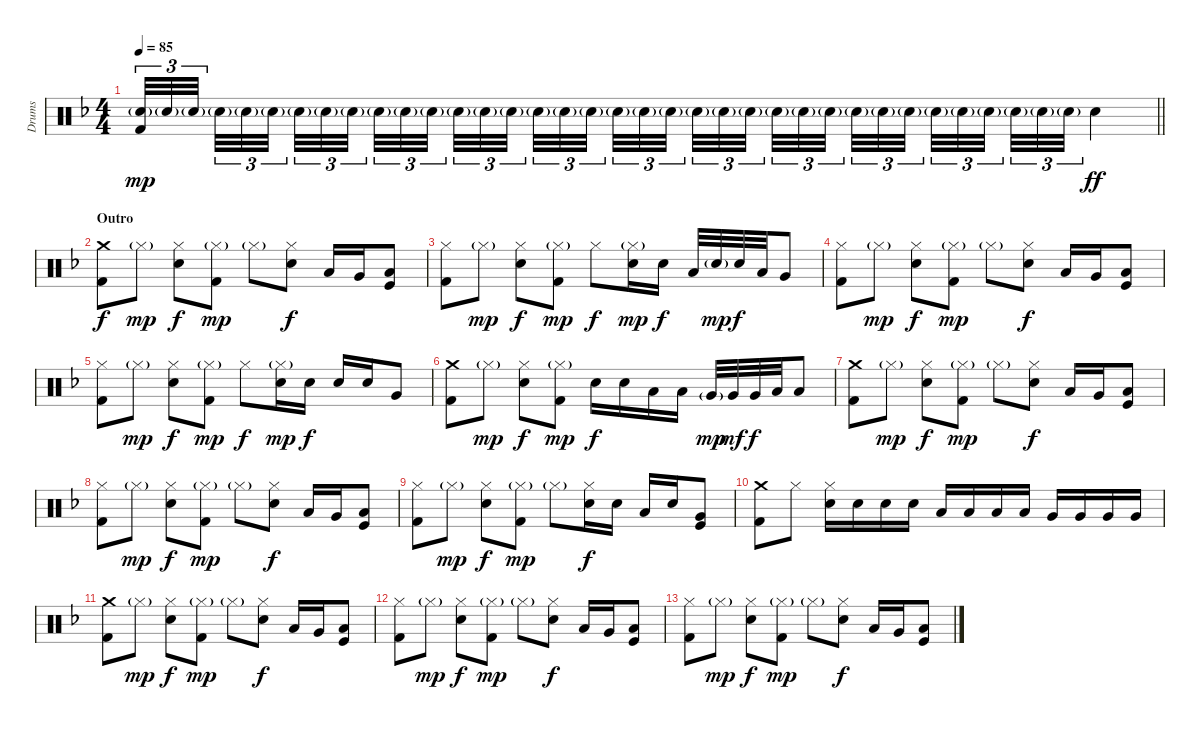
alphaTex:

\track ("Drums" "Drums") {instrument percussion}
\staff {score}
\articulation defaults
\ts (4 4)
\tempo 85
\clef neutral
\barLineRight lightlight
\ks dminor
("Electric Snare (hit)"{g} "Kick (hit) 2").32{tu (3 2) dy mp volume 2} "Electric Snare (hit)"{g}.32{tu (3 2)} "Electric Snare (hit)"{g}.32{tu (3 2) beam splitsecondary} "Electric Snare (hit)"{g}.32{tu (3 2)} "Electric Snare (hit)"{g}.32{tu (3 2)} "Electric Snare (hit)"{g}.32{tu (3 2) beam splitsecondary} "Electric Snare (hit)"{g}.32{tu (3 2)} "Electric Snare (hit)"{g}.32{tu (3 2)} "Electric Snare (hit)"{g}.32{tu (3 2) beam splitsecondary} "Electric Snare (hit)"{g}.32{tu (3 2)} "Electric Snare (hit)"{g}.32{tu (3 2)} "Electric Snare (hit)"{g}.32{tu (3 2)} "Electric Snare (hit)"{g}.32{tu (3 2) volume 12} "Electric Snare (hit)"{g}.32{tu (3 2)} "Electric Snare (hit)"{g}.32{tu (3 2) beam splitsecondary} "Electric Snare (hit)"{g}.32{tu (3 2)} "Electric Snare (hit)"{g}.32{tu (3 2)} "Electric Snare (hit)"{g}.32{tu (3 2) beam splitsecondary} "Electric Snare (hit)"{g}.32{tu (3 2)} "Electric Snare (hit)"{g}.32{tu (3 2)} "Electric Snare (hit)"{g}.32{tu (3 2) beam splitsecondary} "Electric Snare (hit)"{g}.32{tu (3 2)} "Electric Snare (hit)"{g}.32{tu (3 2)} "Electric Snare (hit)"{g}.32{tu (3 2)} "Electric Snare (hit)"{g}.32{tu (3 2)} "Electric Snare (hit)"{g}.32{tu (3 2)} "Electric Snare (hit)"{g}.32{tu (3 2) beam splitsecondary} "Electric Snare (hit)"{g}.32{tu (3 2)} "Electric Snare (hit)"{g}.32{tu (3 2)} "Electric Snare (hit)"{g}.32{tu (3 2) beam splitsecondary} "Electric Snare (hit)"{g}.32{tu (3 2)} "Electric Snare (hit)"{g}.32{tu (3 2)} "Electric Snare (hit)"{g}.32{tu (3 2) beam splitsecondary} "Electric Snare (hit)"{g}.32{tu (3 2)} "Electric Snare (hit)"{g}.32{tu (3 2)} "Electric Snare (hit)"{g}.32{tu (3 2)} "Electric Snare (hit)".4{dy ff} |
\section ("" "Outro")
("Crash medium (hit)" "Kick (hit) 2").8{dy f} "Hi-Hat (closed)"{g}.8{dy mp} ("Hi-Hat (closed)" "Electric Snare (hit)").8{dy f} ("Hi-Hat (closed)"{g} "Kick (hit) 2").8{dy mp} "Hi-Hat (closed)"{g}.8 ("Hi-Hat (closed)" "Electric Snare (hit)").8{dy f} "Low Tom (hit)".16 "Very Low Tom (hit)".16 ("Low Floor Tom (hit)" "Kick (hit)").8 |
("Hi-Hat (closed)" "Kick (hit) 2").8 "Hi-Hat (closed)"{g}.8{dy mp} ("Hi-Hat (closed)" "Electric Snare (hit)").8{dy f} ("Hi-Hat (closed)"{g} "Kick (hit) 2").8{dy mp} "Hi-Hat (closed)".8{dy f} ("Hi-Hat (closed)"{g} "Electric Snare (hit)").16{dy mp} "Electric Snare (hit)".16{dy f} "Low Tom (hit)".32 "Electric Snare (hit)"{g}.32{dy mp} "Electric Snare (hit)".32{dy f} "Low Tom (hit)".32 "Very Low Tom (hit)".8 |
("Hi-Hat (closed)" "Kick (hit) 2").8 "Hi-Hat (closed)"{g}.8{dy mp} ("Hi-Hat (closed)" "Electric Snare (hit)").8{dy f} ("Hi-Hat (closed)"{g} "Kick (hit) 2").8{dy mp} "Hi-Hat (closed)"{g}.8 ("Hi-Hat (closed)" "Electric Snare (hit)").8{dy f} "Low Tom (hit)".16 "Very Low Tom (hit)".16 ("Low Floor Tom (hit)" "Kick (hit)").8 |
("Hi-Hat (closed)" "Kick (hit) 2").8 "Hi-Hat (closed)"{g}.8{dy mp} ("Hi-Hat (closed)" "Electric Snare (hit)").8{dy f} ("Hi-Hat (closed)"{g} "Kick (hit) 2").8{dy mp} "Hi-Hat (closed)".8{dy f} ("Hi-Hat (closed)"{g} "Electric Snare (hit)").16{dy mp} "Electric Snare (hit)".16{dy f} "Electric Snare (hit)".16 "Electric Snare (hit)".16 "Very Low Tom (hit)".8 |
("Crash medium (hit)" "Kick (hit) 2").8 "Hi-Hat (closed)"{g}.8{dy mp} ("Hi-Hat (closed)" "Electric Snare (hit)").8{dy f} ("Hi-Hat (closed)"{g} "Kick (hit) 2").8{dy mp} "Electric Snare (hit)".16{dy f} "Electric Snare (hit)".16 "Low Tom (hit)".16 "Low Tom (hit)".16 "Very Low Tom (hit)"{g}.32{dy mp} "Very Low Tom (hit)".32{dy mf} "Very Low Tom (hit)".32{dy f} "Low Floor Tom (hit)".32 "Low Floor Tom (hit)".8 |
("Crash medium (hit)" "Kick (hit) 2").8 "Hi-Hat (closed)"{g}.8{dy mp} ("Hi-Hat (closed)" "Electric Snare (hit)").8{dy f} ("Hi-Hat (closed)"{g} "Kick (hit) 2").8{dy mp} "Hi-Hat (closed)"{g}.8 ("Hi-Hat (closed)" "Electric Snare (hit)").8{dy f} "Low Tom (hit)".16 "Very Low Tom (hit)".16 ("Low Floor Tom (hit)" "Kick (hit)").8 |
("Hi-Hat (closed)" "Kick (hit) 2").8 "Hi-Hat (closed)"{g}.8{dy mp} ("Hi-Hat (closed)" "Electric Snare (hit)").8{dy f} ("Hi-Hat (closed)"{g} "Kick (hit) 2").8{dy mp} "Hi-Hat (closed)"{g}.8 ("Hi-Hat (closed)" "Electric Snare (hit)").8{dy f} "Low Tom (hit)".16 "Very Low Tom (hit)".16 ("Low Floor Tom (hit)" "Kick (hit)").8 |
("Hi-Hat (closed)" "Kick (hit) 2").8 "Hi-Hat (closed)"{g}.8{dy mp} ("Hi-Hat (closed)" "Electric Snare (hit)").8{dy f} ("Hi-Hat (closed)"{g} "Kick (hit) 2").8{dy mp} "Hi-Hat (closed)"{g}.8 ("Hi-Hat (closed)" "Electric Snare (hit)").16{dy f} "Electric Snare (hit)".16 "Low Tom (hit)".16 "Electric Snare (hit)".16 ("Very Low Tom (hit)" "Kick (hit)").8 |
("Crash medium (hit)" "Kick (hit) 2").8 "Hi-Hat (closed)".8 ("Hi-Hat (closed)" "Electric Snare (hit)").16 "Electric Snare (hit)".16 "Electric Snare (hit)".16 "Electric Snare (hit)".16 "Low Tom (hit)".16 "Low Tom (hit)".16 "Low Tom (hit)".16 "Low Tom (hit)".16 "Very Low Tom (hit)".16 "Very Low Tom (hit)".16 "Very Low Tom (hit)".16 "Very Low Tom (hit)".16 |
("Crash medium (hit)" "Kick (hit) 2").8 "Hi-Hat (closed)"{g}.8{dy mp} ("Hi-Hat (closed)" "Electric Snare (hit)").8{dy f} ("Hi-Hat (closed)"{g} "Kick (hit) 2").8{dy mp} "Hi-Hat (closed)"{g}.8 ("Hi-Hat (closed)" "Electric Snare (hit)").8{dy f} "Low Tom (hit)".16 "Very Low Tom (hit)".16 ("Low Floor Tom (hit)" "Kick (hit)").8 |
("Hi-Hat (closed)" "Kick (hit) 2").8 "Hi-Hat (closed)"{g}.8{dy mp} ("Hi-Hat (closed)" "Electric Snare (hit)").8{dy f} ("Hi-Hat (closed)"{g} "Kick (hit) 2").8{dy mp} "Hi-Hat (closed)"{g}.8 ("Hi-Hat (closed)" "Electric Snare (hit)").8{dy f} "Low Tom (hit)".16 "Very Low Tom (hit)".16 ("Low Floor Tom (hit)" "Kick (hit)").8 |
("Hi-Hat (closed)" "Kick (hit) 2").8 "Hi-Hat (closed)"{g}.8{dy mp} ("Hi-Hat (closed)" "Electric Snare (hit)").8{dy f} ("Hi-Hat (closed)"{g} "Kick (hit) 2").8{dy mp} "Hi-Hat (closed)"{g}.8 ("Hi-Hat (closed)" "Electric Snare (hit)").8{dy f} "Low Tom (hit)".16 "Very Low Tom (hit)".16 ("Low Floor Tom (hit)" "Kick (hit)").8
